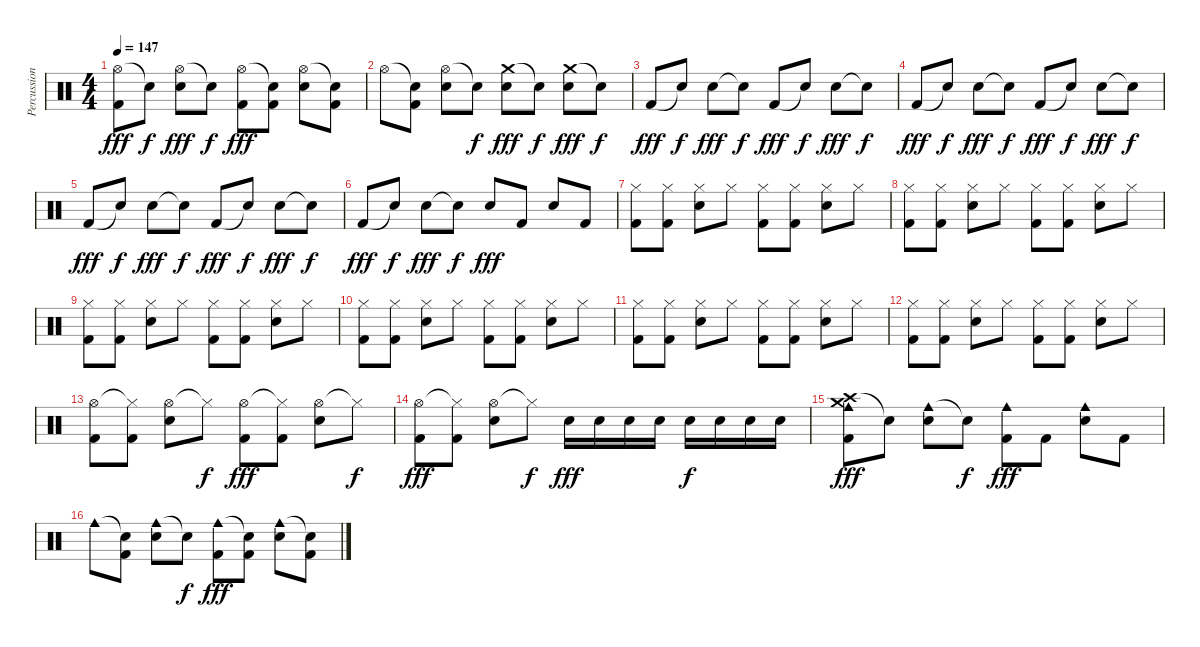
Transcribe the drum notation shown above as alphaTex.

\track ("Percussion" "Percussion") {instrument percussion}
\staff {score}
\articulation defaults
\ts (4 4)
\tempo 147
\clef neutral
\ks c
("Hi-Hat (open)" "Kick (hit) 2").8{dy fff} "Snare (hit)"{t}.8{dy f} ("Hi-Hat (open)" "Electric Snare (hit)").8{dy fff} "Snare (hit)"{t}.8{dy f} ("Hi-Hat (open)" "Kick (hit) 2").8{dy fff} ("Snare (hit)"{t} "Kick (hit) 2").8 ("Hi-Hat (open)" "Electric Snare (hit)").8 ("Snare (hit)"{t} "Kick (hit) 2").8 |
"Hi-Hat (open)".8 ("Snare (hit)"{t} "Kick (hit) 2").8 ("Hi-Hat (open)" "Electric Snare (hit)").8 "Snare (hit)"{t}.8{dy f} ("Crash medium (hit)" "Electric Snare (hit)").8{dy fff} "Snare (hit)"{t}.8{dy f} ("Crash medium (hit)" "Electric Snare (hit)").8{dy fff} "Snare (hit)"{t}.8{dy f} |
"Kick (hit) 2".8{dy fff} "Snare (hit)"{t}.8{dy f} "Electric Snare (hit)".8{dy fff} "Snare (hit)"{t}.8{dy f} "Kick (hit) 2".8{dy fff} "Snare (hit)"{t}.8{dy f} "Electric Snare (hit)".8{dy fff} "Snare (hit)"{t}.8{dy f} |
"Kick (hit) 2".8{dy fff} "Snare (hit)"{t}.8{dy f} "Electric Snare (hit)".8{dy fff} "Snare (hit)"{t}.8{dy f} "Kick (hit) 2".8{dy fff} "Snare (hit)"{t}.8{dy f} "Electric Snare (hit)".8{dy fff} "Snare (hit)"{t}.8{dy f} |
"Kick (hit) 2".8{dy fff} "Snare (hit)"{t}.8{dy f} "Electric Snare (hit)".8{dy fff} "Snare (hit)"{t}.8{dy f} "Kick (hit) 2".8{dy fff} "Snare (hit)"{t}.8{dy f} "Electric Snare (hit)".8{dy fff} "Snare (hit)"{t}.8{dy f} |
"Kick (hit) 2".8{dy fff} "Snare (hit)"{t}.8{dy f} "Electric Snare (hit)".8{dy fff} "Snare (hit)"{t}.8{dy f} "Electric Snare (hit)".8{dy fff} "Kick (hit) 2".8 "Electric Snare (hit)".8 "Kick (hit) 2".8 |
("Hi-Hat (closed)" "Kick (hit) 2").8 ("Hi-Hat (closed)" "Kick (hit) 2").8 ("Hi-Hat (closed)" "Electric Snare (hit)").8 "Hi-Hat (closed)".8 ("Hi-Hat (closed)" "Kick (hit) 2").8 ("Hi-Hat (closed)" "Kick (hit) 2").8 ("Hi-Hat (closed)" "Electric Snare (hit)").8 "Hi-Hat (closed)".8 |
("Hi-Hat (closed)" "Kick (hit) 2").8 ("Hi-Hat (closed)" "Kick (hit) 2").8 ("Hi-Hat (closed)" "Electric Snare (hit)").8 "Hi-Hat (closed)".8 ("Hi-Hat (closed)" "Kick (hit) 2").8 ("Hi-Hat (closed)" "Kick (hit) 2").8 ("Hi-Hat (closed)" "Electric Snare (hit)").8 "Hi-Hat (closed)".8 |
("Hi-Hat (closed)" "Kick (hit) 2").8 ("Hi-Hat (closed)" "Kick (hit) 2").8 ("Hi-Hat (closed)" "Electric Snare (hit)").8 "Hi-Hat (closed)".8 ("Hi-Hat (closed)" "Kick (hit) 2").8 ("Hi-Hat (closed)" "Kick (hit) 2").8 ("Hi-Hat (closed)" "Electric Snare (hit)").8 "Hi-Hat (closed)".8 |
("Hi-Hat (closed)" "Kick (hit) 2").8 ("Hi-Hat (closed)" "Kick (hit) 2").8 ("Hi-Hat (closed)" "Electric Snare (hit)").8 "Hi-Hat (closed)".8 ("Hi-Hat (closed)" "Kick (hit) 2").8 ("Hi-Hat (closed)" "Kick (hit) 2").8 ("Hi-Hat (closed)" "Electric Snare (hit)").8 "Hi-Hat (closed)".8 |
("Hi-Hat (closed)" "Kick (hit) 2").8 ("Hi-Hat (closed)" "Kick (hit) 2").8 ("Hi-Hat (closed)" "Electric Snare (hit)").8 "Hi-Hat (closed)".8 ("Hi-Hat (closed)" "Kick (hit) 2").8 ("Hi-Hat (closed)" "Kick (hit) 2").8 ("Hi-Hat (closed)" "Electric Snare (hit)").8 "Hi-Hat (closed)".8 |
("Hi-Hat (closed)" "Kick (hit) 2").8 ("Hi-Hat (closed)" "Kick (hit) 2").8 ("Hi-Hat (closed)" "Electric Snare (hit)").8 "Hi-Hat (closed)".8 ("Hi-Hat (closed)" "Kick (hit) 2").8 ("Hi-Hat (closed)" "Kick (hit) 2").8 ("Hi-Hat (closed)" "Electric Snare (hit)").8 "Hi-Hat (closed)".8 |
("Hi-Hat (open)" "Kick (hit) 2").8 ("Hi-Hat (closed)"{t} "Kick (hit) 2").8 ("Hi-Hat (open)" "Electric Snare (hit)").8 "Hi-Hat (closed)"{t}.8{dy f} ("Hi-Hat (open)" "Kick (hit) 2").8{dy fff} ("Hi-Hat (closed)"{t} "Kick (hit) 2").8 ("Hi-Hat (open)" "Electric Snare (hit)").8 "Hi-Hat (closed)"{t}.8{dy f} |
("Hi-Hat (open)" "Kick (hit) 2").8{dy fff} ("Hi-Hat (closed)"{t} "Kick (hit) 2").8 ("Hi-Hat (open)" "Electric Snare (hit)").8 "Hi-Hat (closed)"{t}.8{dy f} "Electric Snare (hit)".16{dy fff} "Electric Snare (hit)".16 "Electric Snare (hit)".16 "Electric Snare (hit)".16 "Electric Snare (hit)".16{dy f} "Electric Snare (hit)".16 "Electric Snare (hit)".16 "Electric Snare (hit)".16 |
("Crash high (hit)" "Crash medium (hit)" "Cowbell medium (hit)" "Kick (hit) 2").8{dy fff} "Snare (hit)"{t}.8 ("Cowbell medium (hit)" "Electric Snare (hit)").8 "Snare (hit)"{t}.8{dy f} ("Cowbell medium (hit)" "Kick (hit) 2").8{dy fff} "Kick (hit) 2".8 ("Cowbell medium (hit)" "Electric Snare (hit)").8 "Kick (hit) 2".8 |
"Cowbell medium (hit)".8 ("Snare (hit)"{t} "Kick (hit) 2").8 ("Cowbell medium (hit)" "Electric Snare (hit)").8 "Snare (hit)"{t}.8{dy f} ("Cowbell medium (hit)" "Kick (hit) 2").8{dy fff} ("Snare (hit)"{t} "Kick (hit) 2").8 ("Cowbell medium (hit)" "Electric Snare (hit)").8 ("Snare (hit)"{t} "Kick (hit) 2").8
